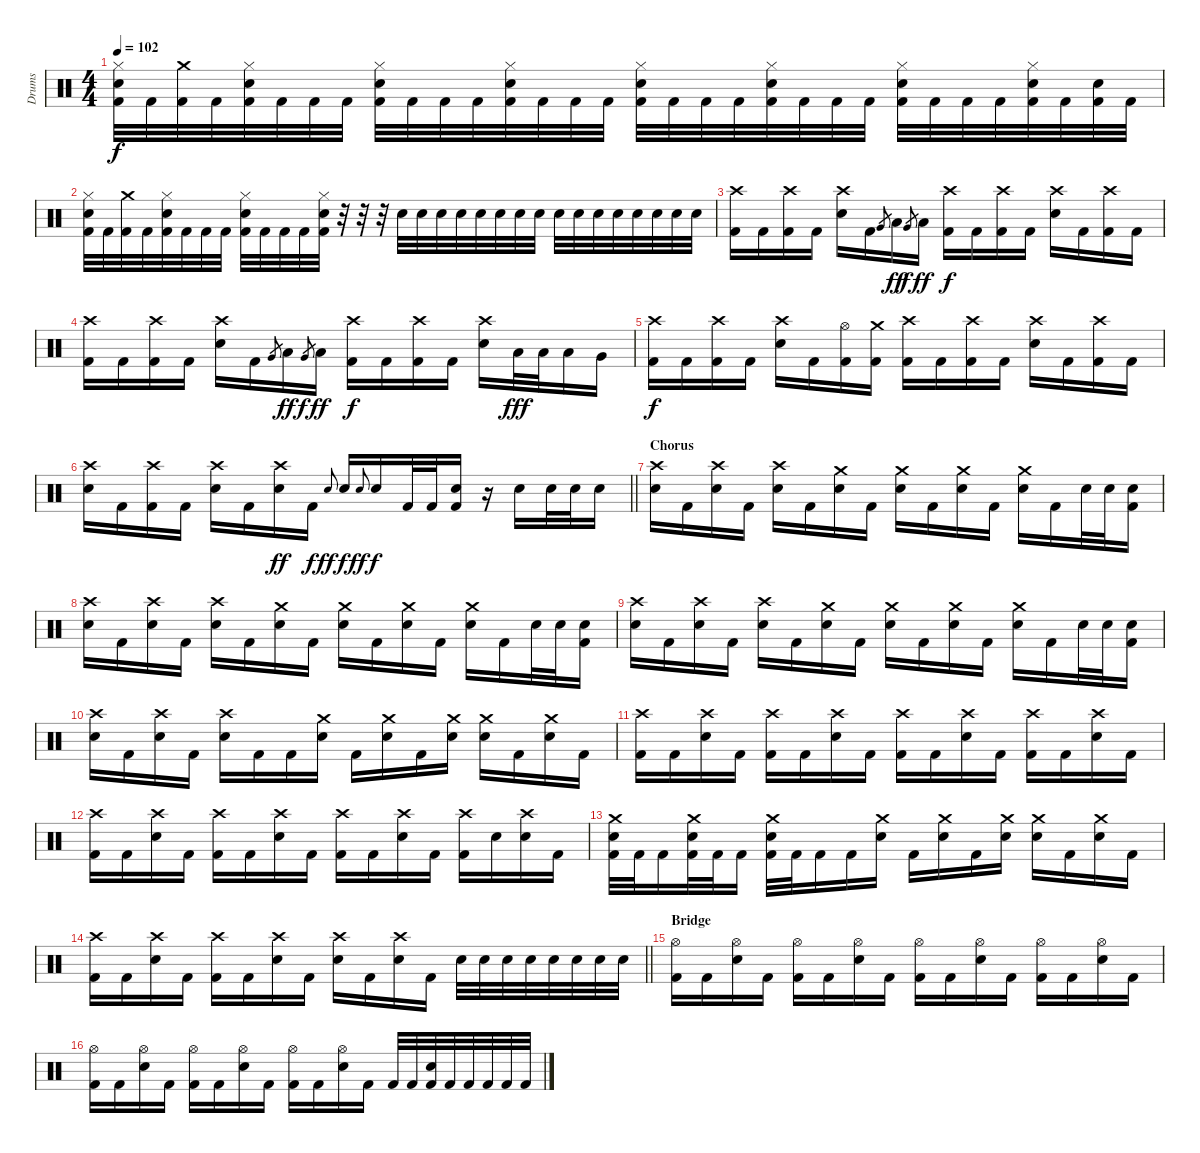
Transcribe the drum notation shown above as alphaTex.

\track ("Drums" "Drums") {instrument percussion}
\staff {score}
\articulation defaults
\ts (4 4)
\tempo 102
\clef neutral
\ks c
("Hi-Hat (closed)" "Snare (hit) 2" "Kick (hit) 2").32{dy f} "Kick (hit) 2".32 ("Crash medium (hit)" "Kick (hit) 2").32 "Kick (hit) 2".32 ("Hi-Hat (closed)" "Snare (hit) 2" "Kick (hit) 2").32 "Kick (hit) 2".32 "Kick (hit) 2".32 "Kick (hit) 2".32 ("Hi-Hat (closed)" "Snare (hit) 2" "Kick (hit) 2").32 "Kick (hit) 2".32 "Kick (hit) 2".32 "Kick (hit) 2".32 ("Hi-Hat (closed)" "Snare (hit) 2" "Kick (hit) 2").32 "Kick (hit) 2".32 "Kick (hit) 2".32 "Kick (hit) 2".32 ("Hi-Hat (closed)" "Snare (hit) 2" "Kick (hit) 2").32 "Kick (hit) 2".32 "Kick (hit) 2".32 "Kick (hit) 2".32 ("Hi-Hat (closed)" "Snare (hit) 2" "Kick (hit) 2").32 "Kick (hit) 2".32 "Kick (hit) 2".32 "Kick (hit) 2".32 ("Hi-Hat (closed)" "Snare (hit) 2" "Kick (hit) 2").32 "Kick (hit) 2".32 "Kick (hit) 2".32 "Kick (hit) 2".32 ("Hi-Hat (closed)" "Snare (hit) 2" "Kick (hit) 2").32 "Kick (hit) 2".32 ("Snare (hit) 2" "Kick (hit) 2").32 "Kick (hit) 2".32 |
("Hi-Hat (closed)" "Snare (hit) 2" "Kick (hit) 2").32 "Kick (hit) 2".32 ("Crash medium (hit)" "Kick (hit) 2").32 "Kick (hit) 2".32 ("Hi-Hat (closed)" "Snare (hit) 2" "Kick (hit) 2").32 "Kick (hit) 2".32 "Kick (hit) 2".32 "Kick (hit) 2".32 ("Hi-Hat (closed)" "Snare (hit) 2" "Kick (hit) 2").32 "Kick (hit) 2".32 "Kick (hit) 2".32 "Kick (hit) 2".32 ("Hi-Hat (closed)" "Snare (hit) 2" "Kick (hit) 2").32 r.32 r.32 r.32 "Snare (hit) 2".32 "Snare (hit) 2".32 "Snare (hit) 2".32 "Snare (hit) 2".32 "Snare (hit) 2".32 "Snare (hit) 2".32 "Snare (hit) 2".32 "Snare (hit) 2".32 "Snare (hit) 2".32 "Snare (hit) 2".32 "Snare (hit) 2".32 "Snare (hit) 2".32 "Snare (hit) 2".32 "Snare (hit) 2".32 "Snare (hit) 2".32 "Snare (hit) 2".32 |
("Crash high (hit)" "Kick (hit) 2").16 "Kick (hit) 2".16 ("Crash high (hit)" "Kick (hit) 2").16 "Kick (hit) 2".16 ("Crash high (hit)" "Snare (hit) 2").16 "Kick (hit) 2".16 "Very Low Tom (hit)".8{gr} "Low Tom (hit)".16{dy ff} "Very Low Tom (hit)".8{gr dy f} "Low Tom (hit)".16{dy ff} ("Crash high (hit)" "Kick (hit) 2").16{dy f} "Kick (hit) 2".16 ("Crash high (hit)" "Kick (hit) 2").16 "Kick (hit) 2".16 ("Crash high (hit)" "Snare (hit) 2").16 "Kick (hit) 2".16 ("Crash high (hit)" "Kick (hit) 2").16 "Kick (hit) 2".16 |
("Crash high (hit)" "Kick (hit) 2").16 "Kick (hit) 2".16 ("Crash high (hit)" "Kick (hit) 2").16 "Kick (hit) 2".16 ("Crash high (hit)" "Snare (hit) 2").16 "Kick (hit) 2".16 "Very Low Tom (hit)".8{gr} "Low Tom (hit)".16{dy ff} "Very Low Tom (hit)".8{gr dy f} "Low Tom (hit)".16{dy ff} ("Crash high (hit)" "Kick (hit) 2").16{dy f} "Kick (hit) 2".16 ("Crash high (hit)" "Kick (hit) 2").16 "Kick (hit) 2".16 ("Crash high (hit)" "Snare (hit) 2").16 "Low Tom (hit)".32{dy fff} "Low Tom (hit)".32 "Low Tom (hit)".16 "Very Low Tom (hit)".16 |
("Crash high (hit)" "Kick (hit) 2").16{dy f} "Kick (hit) 2".16 ("Crash high (hit)" "Kick (hit) 2").16 "Kick (hit) 2".16 ("Crash high (hit)" "Snare (hit) 2").16 "Kick (hit) 2".16 ("Hi-Hat (open)" "Kick (hit) 2").16 ("Crash medium (hit)" "Kick (hit) 2").16 ("Crash high (hit)" "Kick (hit) 2").16 "Kick (hit) 2".16 ("Crash high (hit)" "Kick (hit) 2").16 "Kick (hit) 2".16 ("Crash high (hit)" "Snare (hit) 2").16 "Kick (hit) 2".16 ("Crash high (hit)" "Kick (hit) 2").16 "Kick (hit) 2".16 |
\barLineRight lightlight
("Crash high (hit)" "Snare (hit) 2").16 "Kick (hit) 2".16 ("Crash high (hit)" "Kick (hit) 2").16 "Kick (hit) 2".16 ("Crash high (hit)" "Snare (hit) 2").16 "Kick (hit) 2".16 ("Crash high (hit)" "Snare (hit) 2").16{dy ff} "Kick (hit) 2".16{dy f} "Snare (hit) 2".8{gr onbeat dy ff} "Snare (hit) 2".16{dy f} "Snare (hit) 2".8{gr onbeat dy ff} "Snare (hit) 2".16{dy f} "Kick (hit) 2".32 "Kick (hit) 2".32 ("Snare (hit) 2" "Kick (hit) 2").16 r.16 "Snare (hit) 2".16 "Snare (hit) 2".32 "Snare (hit) 2".32 "Snare (hit) 2".16 |
\section ("" "Chorus")
("Crash high (hit)" "Snare (hit) 2").16 "Kick (hit) 2".16 ("Crash high (hit)" "Snare (hit) 2").16 "Kick (hit) 2".16 ("Crash high (hit)" "Snare (hit) 2").16 "Kick (hit) 2".16 ("Crash medium (hit)" "Snare (hit) 2").16 "Kick (hit) 2".16 ("Crash medium (hit)" "Snare (hit) 2").16 "Kick (hit) 2".16 ("Crash medium (hit)" "Snare (hit) 2").16 "Kick (hit) 2".16 ("Crash medium (hit)" "Snare (hit) 2").16 "Kick (hit) 2".16 "Snare (hit) 2".32 "Snare (hit) 2".32 ("Snare (hit) 2" "Kick (hit) 2").16 |
("Crash high (hit)" "Snare (hit) 2").16 "Kick (hit) 2".16 ("Crash high (hit)" "Snare (hit) 2").16 "Kick (hit) 2".16 ("Crash high (hit)" "Snare (hit) 2").16 "Kick (hit) 2".16 ("Crash medium (hit)" "Snare (hit) 2").16 "Kick (hit) 2".16 ("Crash medium (hit)" "Snare (hit) 2").16 "Kick (hit) 2".16 ("Crash medium (hit)" "Snare (hit) 2").16 "Kick (hit) 2".16 ("Crash medium (hit)" "Snare (hit) 2").16 "Kick (hit) 2".16 "Snare (hit) 2".32 "Snare (hit) 2".32 ("Snare (hit) 2" "Kick (hit) 2").16 |
("Crash high (hit)" "Snare (hit) 2").16 "Kick (hit) 2".16 ("Crash high (hit)" "Snare (hit) 2").16 "Kick (hit) 2".16 ("Crash high (hit)" "Snare (hit) 2").16 "Kick (hit) 2".16 ("Crash medium (hit)" "Snare (hit) 2").16 "Kick (hit) 2".16 ("Crash medium (hit)" "Snare (hit) 2").16 "Kick (hit) 2".16 ("Crash medium (hit)" "Snare (hit) 2").16 "Kick (hit) 2".16 ("Crash medium (hit)" "Snare (hit) 2").16 "Kick (hit) 2".16 "Snare (hit) 2".32 "Snare (hit) 2".32 ("Snare (hit) 2" "Kick (hit) 2").16 |
("Crash high (hit)" "Snare (hit) 2").16 "Kick (hit) 2".16 ("Crash high (hit)" "Snare (hit) 2").16 "Kick (hit) 2".16 ("Crash high (hit)" "Snare (hit) 2").16 "Kick (hit) 2".16 "Kick (hit) 2".16 ("Crash medium (hit)" "Snare (hit) 2").16 "Kick (hit) 2".16 ("Crash medium (hit)" "Snare (hit) 2").16 "Kick (hit) 2".16 ("Crash medium (hit)" "Snare (hit) 2").16 ("Crash medium (hit)" "Snare (hit) 2").16 "Kick (hit) 2".16 ("Crash medium (hit)" "Snare (hit) 2").16 "Kick (hit) 2".16 |
("Crash high (hit)" "Kick (hit) 2").16 "Kick (hit) 2".16 ("Crash high (hit)" "Snare (hit) 2").16 "Kick (hit) 2".16 ("Crash high (hit)" "Kick (hit) 2").16 "Kick (hit) 2".16 ("Crash high (hit)" "Snare (hit) 2").16 "Kick (hit) 2".16 ("Crash high (hit)" "Kick (hit) 2").16 "Kick (hit) 2".16 ("Crash high (hit)" "Snare (hit) 2").16 "Kick (hit) 2".16 ("Crash high (hit)" "Kick (hit) 2").16 "Kick (hit) 2".16 ("Crash high (hit)" "Snare (hit) 2").16 "Kick (hit) 2".16 |
("Crash high (hit)" "Kick (hit) 2").16 "Kick (hit) 2".16 ("Crash high (hit)" "Snare (hit) 2").16 "Kick (hit) 2".16 ("Crash high (hit)" "Kick (hit) 2").16 "Kick (hit) 2".16 ("Crash high (hit)" "Snare (hit) 2").16 "Kick (hit) 2".16 ("Crash high (hit)" "Kick (hit) 2").16 "Kick (hit) 2".16 ("Crash high (hit)" "Snare (hit) 2").16 "Kick (hit) 2".16 ("Crash high (hit)" "Kick (hit) 2").16 "Snare (hit) 2".16 ("Crash high (hit)" "Snare (hit) 2").16 "Kick (hit) 2".16 |
("Crash medium (hit)" "Snare (hit) 2" "Kick (hit) 2").32 "Kick (hit) 2".32 "Kick (hit) 2".16 ("Crash medium (hit)" "Snare (hit) 2" "Kick (hit) 2").32 "Kick (hit) 2".32 "Kick (hit) 2".16 ("Crash medium (hit)" "Snare (hit) 2" "Kick (hit) 2").32 "Kick (hit) 2".32 "Kick (hit) 2".16 "Kick (hit) 2".16 ("Crash medium (hit)" "Snare (hit) 2").16 "Kick (hit) 2".16 ("Crash medium (hit)" "Snare (hit) 2").16 "Kick (hit) 2".16 ("Crash medium (hit)" "Snare (hit) 2").16 ("Crash medium (hit)" "Snare (hit) 2").16 "Kick (hit) 2".16 ("Crash medium (hit)" "Snare (hit) 2").16 "Kick (hit) 2".16 |
\barLineRight lightlight
("Crash high (hit)" "Kick (hit) 2").16 "Kick (hit) 2".16 ("Crash high (hit)" "Snare (hit) 2").16 "Kick (hit) 2".16 ("Crash high (hit)" "Kick (hit) 2").16 "Kick (hit) 2".16 ("Crash high (hit)" "Snare (hit) 2").16 "Kick (hit) 2".16 ("Crash high (hit)" "Snare (hit) 2").16 "Kick (hit) 2".16 ("Crash high (hit)" "Snare (hit) 2").16 "Kick (hit) 2".16 "Snare (hit) 2".32 "Snare (hit) 2".32 "Snare (hit) 2".32 "Snare (hit) 2".32 "Snare (hit) 2".32 "Snare (hit) 2".32 "Snare (hit) 2".32 "Snare (hit) 2".32 |
\section ("" "Bridge")
("Hi-Hat (open)" "Kick (hit) 2").16 "Kick (hit) 2".16 ("Hi-Hat (open)" "Snare (hit) 2").16 "Kick (hit) 2".16 ("Hi-Hat (open)" "Kick (hit) 2").16 "Kick (hit) 2".16 ("Hi-Hat (open)" "Snare (hit) 2").16 "Kick (hit) 2".16 ("Hi-Hat (open)" "Kick (hit) 2").16 "Kick (hit) 2".16 ("Hi-Hat (open)" "Snare (hit) 2").16 "Kick (hit) 2".16 ("Hi-Hat (open)" "Kick (hit) 2").16 "Kick (hit) 2".16 ("Hi-Hat (open)" "Snare (hit) 2").16 "Kick (hit) 2".16 |
("Hi-Hat (open)" "Kick (hit) 2").16 "Kick (hit) 2".16 ("Hi-Hat (open)" "Snare (hit) 2").16 "Kick (hit) 2".16 ("Hi-Hat (open)" "Kick (hit) 2").16 "Kick (hit) 2".16 ("Hi-Hat (open)" "Snare (hit) 2").16 "Kick (hit) 2".16 ("Hi-Hat (open)" "Kick (hit) 2").16 "Kick (hit) 2".16 ("Hi-Hat (open)" "Snare (hit) 2").16 "Kick (hit) 2".16 "Kick (hit) 2".32 "Kick (hit) 2".32 ("Snare (hit) 2" "Kick (hit) 2").32 "Kick (hit) 2".32 "Kick (hit) 2".32 "Kick (hit) 2".32 "Kick (hit) 2".32 "Kick (hit) 2".32
